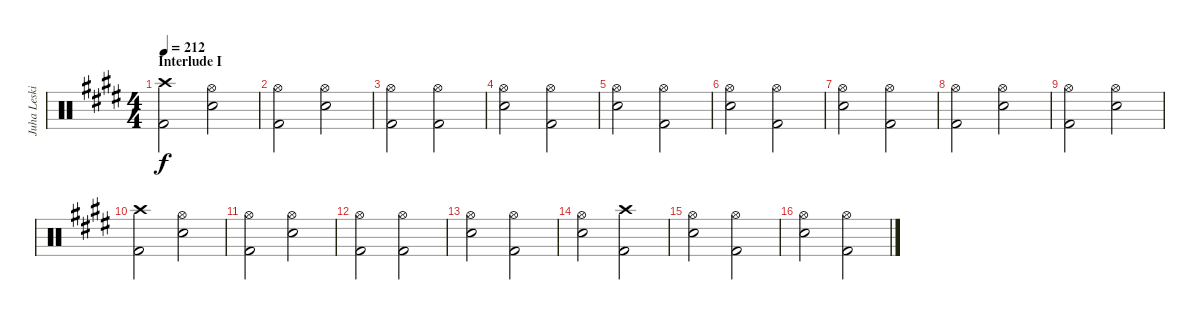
\track ("Juha Leskinen - Drums" "Juha Leski") {instrument percussion}
\staff {score}
\articulation defaults
\ts (4 4)
\section ("" "Interlude I")
\tempo 212
\clef neutral
\ks c#minor
("Crash high (hit)" "Kick (hit) 2").2{dy f} ("Hi-Hat (open)" "Electric Snare (hit)").2 |
("Hi-Hat (open)" "Kick (hit) 2").2 ("Hi-Hat (open)" "Electric Snare (hit)").2 |
("Hi-Hat (open)" "Kick (hit) 2").2 ("Hi-Hat (open)" "Kick (hit) 2").2 |
("Hi-Hat (open)" "Electric Snare (hit)").2 ("Hi-Hat (open)" "Kick (hit) 2").2 |
("Hi-Hat (open)" "Electric Snare (hit)").2 ("Hi-Hat (open)" "Kick (hit) 2").2 |
("Hi-Hat (open)" "Electric Snare (hit)").2 ("Hi-Hat (open)" "Kick (hit) 2").2 |
("Hi-Hat (open)" "Electric Snare (hit)").2 ("Hi-Hat (open)" "Kick (hit) 2").2 |
("Hi-Hat (open)" "Kick (hit) 2").2 ("Hi-Hat (open)" "Electric Snare (hit)").2 |
("Hi-Hat (open)" "Kick (hit) 2").2 ("Hi-Hat (open)" "Electric Snare (hit)").2 |
("Crash high (hit)" "Kick (hit) 2").2 ("Hi-Hat (open)" "Electric Snare (hit)").2 |
("Hi-Hat (open)" "Kick (hit) 2").2 ("Hi-Hat (open)" "Electric Snare (hit)").2 |
("Hi-Hat (open)" "Kick (hit) 2").2 ("Hi-Hat (open)" "Kick (hit) 2").2 |
("Hi-Hat (open)" "Electric Snare (hit)").2 ("Hi-Hat (open)" "Kick (hit) 2").2 |
("Hi-Hat (open)" "Electric Snare (hit)").2 ("Crash high (hit)" "Kick (hit) 2").2 |
("Hi-Hat (open)" "Electric Snare (hit)").2 ("Hi-Hat (open)" "Kick (hit) 2").2 |
("Hi-Hat (open)" "Electric Snare (hit)").2 ("Hi-Hat (open)" "Kick (hit) 2").2
